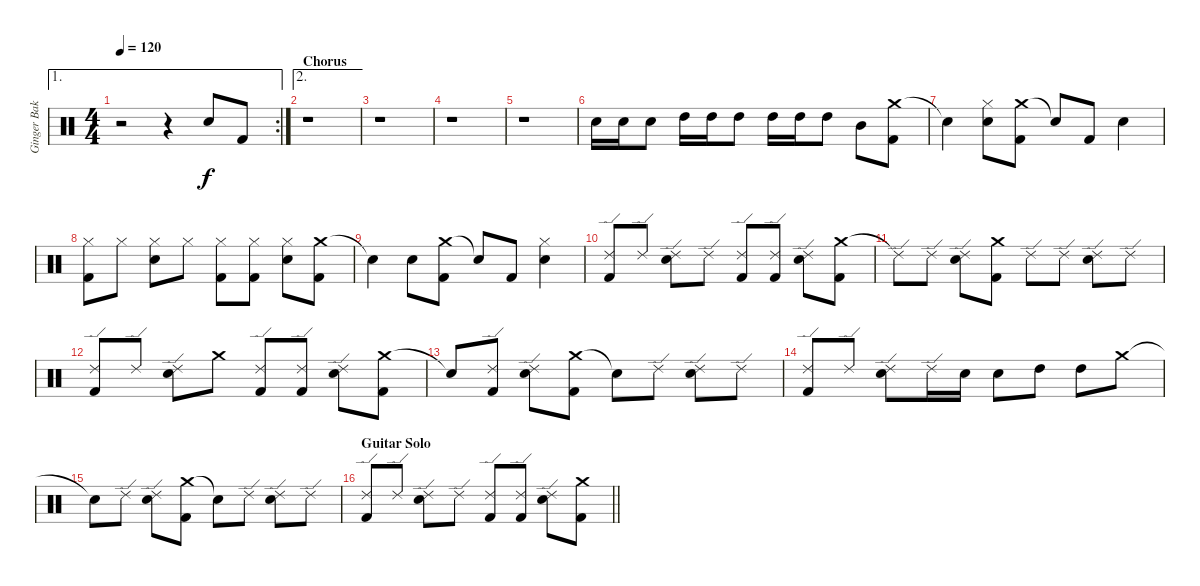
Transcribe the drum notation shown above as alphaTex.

\track ("Ginger Baker Drums" "Ginger Bak") {instrument percussion}
\staff {score}
\articulation defaults
\ae 1
\rc 2
\ts (4 4)
\tempo 120
\clef neutral
\ks c
r.2{dy f} r.4 "Snare (hit) 2".8 "Kick (hit) 2".8 |
\ae 2
\section ("" "Chorus")
r.1 |
r.1 |
r.1 |
r.1 |
"Snare (hit) 2".16 "Snare (hit) 2".16 "Snare (hit) 2".8 "High Tom (hit)".16 "High Tom (hit)".16 "High Tom (hit)".8 "High Tom (hit)".16 "High Tom (hit)".16 "High Tom (hit)".8 "Mid Tom (hit)".8 ("Crash medium (hit)" "Kick (hit) 2").8 |
"Snare (hit)"{t}.4 ("Hi-Hat (closed)" "Snare (hit) 2").8 ("Crash medium (hit)" "Kick (hit) 2").8 "Snare (hit)"{t}.8 "Kick (hit) 2".8 "Snare (hit) 2".4 |
("Hi-Hat (closed)" "Kick (hit) 2").8 "Hi-Hat (closed)".8 ("Hi-Hat (closed)" "Snare (hit) 2").8 "Hi-Hat (closed)".8 ("Hi-Hat (closed)" "Kick (hit) 2").8 ("Hi-Hat (closed)" "Kick (hit) 2").8 ("Hi-Hat (closed)" "Snare (hit) 2").8 ("Crash medium (hit)" "Kick (hit) 2").8 |
"Snare (hit)"{t}.4 "Snare (hit) 2".8 ("Crash medium (hit)" "Kick (hit) 2").8 "Snare (hit)"{t}.8 "Kick (hit) 2".8 ("Hi-Hat (closed)" "Snare (hit) 2").4 |
("Ride (edge) 2" "Kick (hit) 2").8 "Ride (edge) 2".8 ("Ride (edge) 2" "Snare (hit) 2").8 "Ride (edge) 2".8 ("Ride (edge) 2" "Kick (hit) 2").8 ("Ride (edge) 2" "Kick (hit) 2").8 ("Ride (edge) 2" "Snare (hit) 2").8 ("Crash medium (hit)" "Kick (hit) 2").8 |
"Ride (edge) 2"{t}.8 "Ride (edge) 2".8 ("Ride (edge) 2" "Snare (hit) 2").8 ("Crash medium (hit)" "Kick (hit) 2").8 "Ride (edge) 2".8 "Ride (edge) 2".8 ("Ride (edge) 2" "Snare (hit) 2").8 "Ride (edge) 2".8 |
("Ride (edge) 2" "Kick (hit) 2").8 "Ride (edge) 2".8 ("Ride (edge) 2" "Snare (hit) 2").8 "Crash medium (hit)".8 ("Ride (edge) 2" "Kick (hit) 2").8 ("Ride (edge) 2" "Kick (hit) 2").8 ("Ride (edge) 2" "Snare (hit) 2").8 ("Crash medium (hit)" "Kick (hit) 2").8 |
"Snare (hit)"{t}.8 ("Ride (edge) 2" "Kick (hit) 2").8 ("Ride (edge) 2" "Snare (hit) 2").8 ("Crash medium (hit)" "Kick (hit) 2").8 "Snare (hit)"{t}.8 "Ride (edge) 2".8 ("Ride (edge) 2" "Snare (hit) 2").8 "Ride (edge) 2".8 |
("Ride (edge) 2" "Kick (hit) 2").8 "Ride (edge) 2".8 ("Ride (edge) 2" "Snare (hit) 2").8 "Ride (edge) 2".16 "Snare (hit) 2".16 "Snare (hit) 2".8 "High Tom (hit)".8 "High Tom (hit)".8 "Crash medium (hit)".8 |
"Snare (hit)"{t}.8 "Ride (edge) 2".8 ("Ride (edge) 2" "Snare (hit) 2").8 ("Crash medium (hit)" "Kick (hit) 2").8 "Snare (hit)"{t}.8 "Ride (edge) 2".8 ("Ride (edge) 2" "Snare (hit) 2").8 "Ride (edge) 2".8 |
\section ("" "Guitar Solo")
\barLineRight lightlight
("Ride (edge) 2" "Kick (hit) 2").8 "Ride (edge) 2".8 ("Ride (edge) 2" "Snare (hit) 2").8 "Ride (edge) 2".8 ("Ride (edge) 2" "Kick (hit) 2").8 ("Ride (edge) 2" "Kick (hit) 2").8 ("Ride (edge) 2" "Snare (hit) 2").8 ("Crash medium (hit)" "Kick (hit) 2").8
